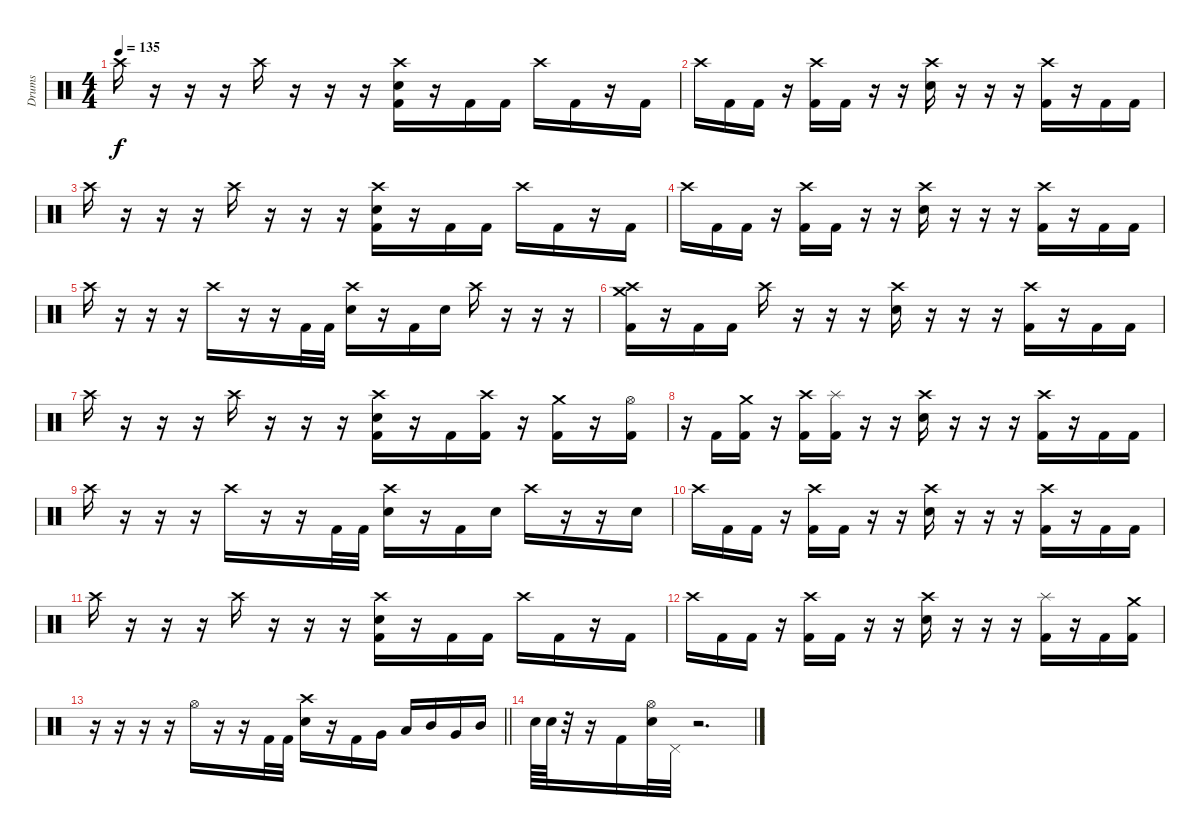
\track ("Drums" "Drums") {instrument percussion}
\staff {score}
\articulation defaults
\ts (4 4)
\tempo 135
\clef neutral
\ks c "Crash high (hit)".16{dy f}
r.16 r.16 r.16 "Crash high (hit)".16 r.16 r.16 r.16 ("Crash high (hit)" "Electric Snare (hit)" "Kick (hit) 2").16 r.16 "Kick (hit) 2".16 "Kick (hit) 2".16 "Crash high (hit)".16 "Kick (hit) 2".16 r.16 "Kick (hit) 2".16 |
"Crash high (hit)".16 "Kick (hit) 2".16 "Kick (hit) 2".16 r.16 ("Crash high (hit)" "Kick (hit) 2").16 "Kick (hit) 2".16 r.16 r.16 ("Crash high (hit)" "Electric Snare (hit)").16 r.16 r.16 r.16 ("Crash high (hit)" "Kick (hit) 2").16 r.16 "Kick (hit) 2".16 "Kick (hit) 2".16 |
"Crash high (hit)".16 r.16 r.16 r.16 "Crash high (hit)".16 r.16 r.16 r.16 ("Crash high (hit)" "Electric Snare (hit)" "Kick (hit) 2").16 r.16 "Kick (hit) 2".16 "Kick (hit) 2".16 "Crash high (hit)".16 "Kick (hit) 2".16 r.16 "Kick (hit) 2".16 |
"Crash high (hit)".16 "Kick (hit) 2".16 "Kick (hit) 2".16 r.16 ("Crash high (hit)" "Kick (hit) 2").16 "Kick (hit) 2".16 r.16 r.16 ("Crash high (hit)" "Electric Snare (hit)").16 r.16 r.16 r.16 ("Crash high (hit)" "Kick (hit) 2").16 r.16 "Kick (hit) 2".16 "Kick (hit) 2".16 |
"Crash high (hit)".16 r.16 r.16 r.16 "Crash high (hit)".16 r.16 r.16 "Kick (hit) 2".32 "Kick (hit) 2".32 ("Crash high (hit)" "Electric Snare (hit)").16 r.16 "Kick (hit) 2".16 "Electric Snare (hit)".16 "Crash high (hit)".16 r.16 r.16 r.16 |
("Crash medium (hit)" "Crash high (hit)" "Kick (hit) 2").16 r.16 "Kick (hit) 2".16 "Kick (hit) 2".16 "Crash high (hit)".16 r.16 r.16 r.16 ("Crash high (hit)" "Electric Snare (hit)").16 r.16 r.16 r.16 ("Crash high (hit)" "Kick (hit) 2").16 r.16 "Kick (hit) 2".16 "Kick (hit) 2".16 |
"Crash high (hit)".16 r.16 r.16 r.16 "Crash high (hit)".16 r.16 r.16 r.16 ("Crash high (hit)" "Electric Snare (hit)" "Kick (hit) 2").16 r.16 "Kick (hit) 2".16 ("Crash high (hit)" "Kick (hit) 2").16 r.16 ("Crash medium (hit)" "Kick (hit) 2").16 r.16 ("Hi-Hat (open)" "Kick (hit) 2").16 |
r.16 "Kick (hit) 2".16 ("Crash medium (hit)" "Kick (hit) 2").16 r.16 ("Crash high (hit)" "Kick (hit) 2").16 ("Splash (hit)" "Kick (hit) 2").16 r.16 r.16 ("Crash high (hit)" "Electric Snare (hit)").16 r.16 r.16 r.16 ("Crash high (hit)" "Kick (hit) 2").16 r.16 "Kick (hit) 2".16 "Kick (hit) 2".16 |
"Crash high (hit)".16 r.16 r.16 r.16 "Crash high (hit)".16 r.16 r.16 "Kick (hit) 2".32 "Kick (hit) 2".32 ("Crash high (hit)" "Electric Snare (hit)").16 r.16 "Kick (hit) 2".16 "Electric Snare (hit)".16 "Crash high (hit)".16 r.16 r.16 "Electric Snare (hit)".16 |
"Crash high (hit)".16 "Kick (hit) 2".16 "Kick (hit) 2".16 r.16 ("Crash high (hit)" "Kick (hit) 2").16 "Kick (hit) 2".16 r.16 r.16 ("Crash high (hit)" "Electric Snare (hit)").16 r.16 r.16 r.16 ("Crash high (hit)" "Kick (hit) 2").16 r.16 "Kick (hit) 2".16 "Kick (hit) 2".16 |
"Crash high (hit)".16 r.16 r.16 r.16 "Crash high (hit)".16 r.16 r.16 r.16 ("Crash high (hit)" "Electric Snare (hit)" "Kick (hit) 2").16 r.16 "Kick (hit) 2".16 "Kick (hit) 2".16 "Crash high (hit)".16 "Kick (hit) 2".16 r.16 "Kick (hit) 2".16 |
"Crash high (hit)".16 "Kick (hit) 2".16 "Kick (hit) 2".16 r.16 ("Crash high (hit)" "Kick (hit) 2").16 "Kick (hit) 2".16 r.16 r.16 ("Crash high (hit)" "Electric Snare (hit)").16 r.16 r.16 r.16 ("Splash (hit)" "Kick (hit) 2").16 r.16 "Kick (hit) 2".16 ("Crash medium (hit)" "Kick (hit) 2").16 |
\barLineRight lightlight
r.16 r.16 r.16 r.16 "Hi-Hat (open)".16 r.16 r.16 "Kick (hit) 2".32 "Kick (hit) 2".32 ("Crash high (hit)" "Electric Snare (hit)").16 r.16 "Kick (hit) 2".16 "Very Low Tom (hit)".16 "Low Tom (hit)".16 "Mid Tom (hit)".16 "Very Low Tom (hit)".16 "Mid Tom (hit)".16 |
\section ("" "")
"Electric Snare (hit)".64 "Electric Snare (hit)".64 r.32 r.16 "Kick (hit) 2".16 ("Hi-Hat (open)" "Electric Snare (hit)").32 "Pedal Hi-Hat (hit)".32 r.2{d}
